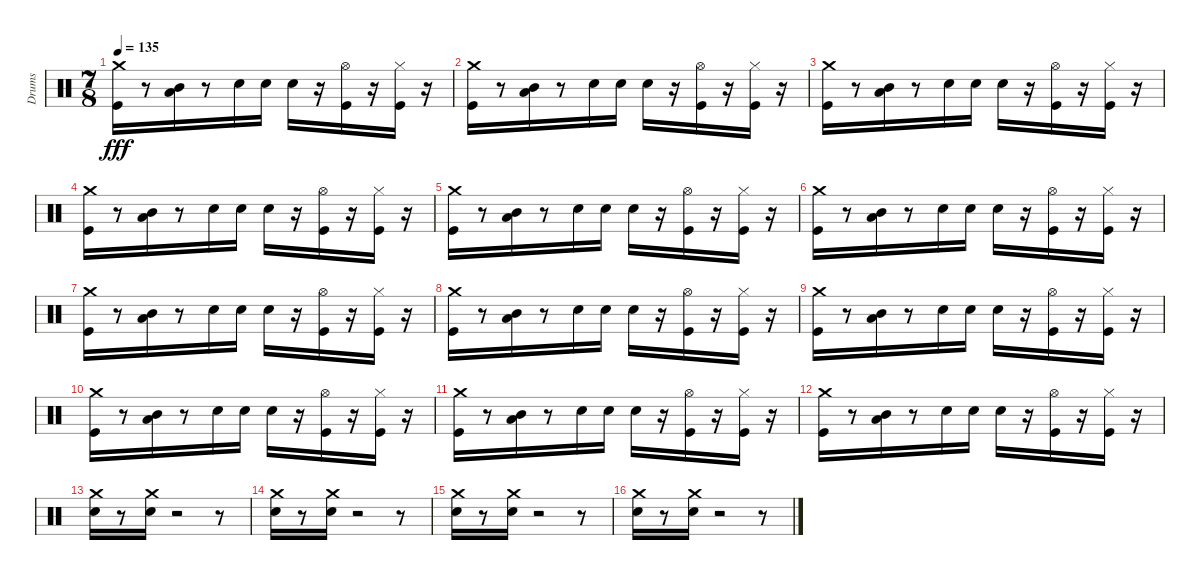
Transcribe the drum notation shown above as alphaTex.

\track ("Drums" "Drums") {instrument percussion}
\staff {score}
\articulation defaults
\ts (7 8)
\tempo 135
\clef neutral
\ks c
("Crash medium (hit)" "Kick (hit)").16{dy fff} r.8 ("Low Tom (hit)" "Mid Tom (hit)").16 r.8 "Snare (hit) 2".16 "Snare (hit) 2".16 "Snare (hit) 2".16 r.16 ("Hi-Hat (open)" "Kick (hit)").16 r.16 ("Hi-Hat (closed)" "Kick (hit)").16 r.16 |
("Crash medium (hit)" "Kick (hit)").16 r.8 ("Low Tom (hit)" "Mid Tom (hit)").16 r.8 "Snare (hit) 2".16 "Snare (hit) 2".16 "Snare (hit) 2".16 r.16 ("Hi-Hat (open)" "Kick (hit)").16 r.16 ("Hi-Hat (closed)" "Kick (hit)").16 r.16 |
("Crash medium (hit)" "Kick (hit)").16 r.8 ("Low Tom (hit)" "Mid Tom (hit)").16 r.8 "Snare (hit) 2".16 "Snare (hit) 2".16 "Snare (hit) 2".16 r.16 ("Hi-Hat (open)" "Kick (hit)").16 r.16 ("Hi-Hat (closed)" "Kick (hit)").16 r.16 |
("Crash medium (hit)" "Kick (hit)").16 r.8 ("Low Tom (hit)" "Mid Tom (hit)").16 r.8 "Snare (hit) 2".16 "Snare (hit) 2".16 "Snare (hit) 2".16 r.16 ("Hi-Hat (open)" "Kick (hit)").16 r.16 ("Hi-Hat (closed)" "Kick (hit)").16 r.16 |
("Crash medium (hit)" "Kick (hit)").16 r.8 ("Low Tom (hit)" "Mid Tom (hit)").16 r.8 "Snare (hit) 2".16 "Snare (hit) 2".16 "Snare (hit) 2".16 r.16 ("Hi-Hat (open)" "Kick (hit)").16 r.16 ("Hi-Hat (closed)" "Kick (hit)").16 r.16 |
("Crash medium (hit)" "Kick (hit)").16 r.8 ("Low Tom (hit)" "Mid Tom (hit)").16 r.8 "Snare (hit) 2".16 "Snare (hit) 2".16 "Snare (hit) 2".16 r.16 ("Hi-Hat (open)" "Kick (hit)").16 r.16 ("Hi-Hat (closed)" "Kick (hit)").16 r.16 |
("Crash medium (hit)" "Kick (hit)").16 r.8 ("Low Tom (hit)" "Mid Tom (hit)").16 r.8 "Snare (hit) 2".16 "Snare (hit) 2".16 "Snare (hit) 2".16 r.16 ("Hi-Hat (open)" "Kick (hit)").16 r.16 ("Hi-Hat (closed)" "Kick (hit)").16 r.16 |
("Crash medium (hit)" "Kick (hit)").16 r.8 ("Low Tom (hit)" "Mid Tom (hit)").16 r.8 "Snare (hit) 2".16 "Snare (hit) 2".16 "Snare (hit) 2".16 r.16 ("Hi-Hat (open)" "Kick (hit)").16 r.16 ("Hi-Hat (closed)" "Kick (hit)").16 r.16 |
("Crash medium (hit)" "Kick (hit)").16 r.8 ("Low Tom (hit)" "Mid Tom (hit)").16 r.8 "Snare (hit) 2".16 "Snare (hit) 2".16 "Snare (hit) 2".16 r.16 ("Hi-Hat (open)" "Kick (hit)").16 r.16 ("Hi-Hat (closed)" "Kick (hit)").16 r.16 |
("Crash medium (hit)" "Kick (hit)").16 r.8 ("Low Tom (hit)" "Mid Tom (hit)").16 r.8 "Snare (hit) 2".16 "Snare (hit) 2".16 "Snare (hit) 2".16 r.16 ("Hi-Hat (open)" "Kick (hit)").16 r.16 ("Hi-Hat (closed)" "Kick (hit)").16 r.16 |
("Crash medium (hit)" "Kick (hit)").16 r.8 ("Low Tom (hit)" "Mid Tom (hit)").16 r.8 "Snare (hit) 2".16 "Snare (hit) 2".16 "Snare (hit) 2".16 r.16 ("Hi-Hat (open)" "Kick (hit)").16 r.16 ("Hi-Hat (closed)" "Kick (hit)").16 r.16 |
("Crash medium (hit)" "Kick (hit)").16 r.8 ("Low Tom (hit)" "Mid Tom (hit)").16 r.8 "Snare (hit) 2".16 "Snare (hit) 2".16 "Snare (hit) 2".16 r.16 ("Hi-Hat (open)" "Kick (hit)").16 r.16 ("Hi-Hat (closed)" "Kick (hit)").16 r.16 |
("Crash medium (hit)" "Snare (hit) 2").16 r.8 ("Crash medium (hit)" "Snare (hit) 2").16 r.2 r.8 |
("Crash medium (hit)" "Snare (hit) 2").16 r.8 ("Crash medium (hit)" "Snare (hit) 2").16 r.2 r.8 |
("Crash medium (hit)" "Snare (hit) 2").16 r.8 ("Crash medium (hit)" "Snare (hit) 2").16 r.2 r.8 |
("Crash medium (hit)" "Snare (hit) 2").16 r.8 ("Crash medium (hit)" "Snare (hit) 2").16 r.2 r.8
